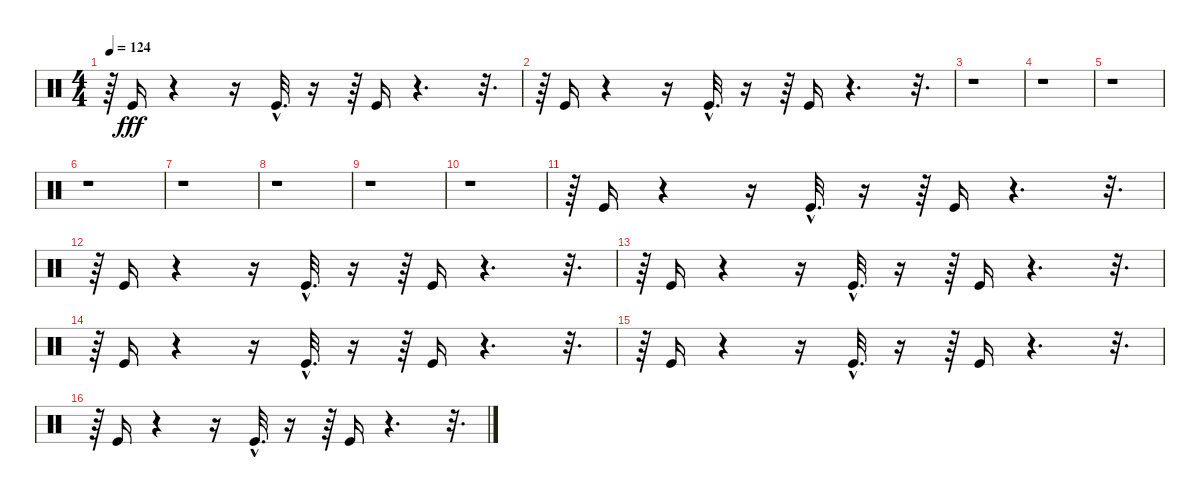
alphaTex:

\track "" {instrument percussion}
\staff {score}
\articulation defaults
\ts (4 4)
\tempo 124
\clef neutral
\ks c
r.64{dy fff} "Kick (hit)".16 r.4 r.16 "Kick (hit)"{hac}.32{d} r.16 r.64 "Kick (hit)".16 r.4{d} r.32{d} |
r.64 "Kick (hit)".16 r.4 r.16 "Kick (hit)"{hac}.32{d} r.16 r.64 "Kick (hit)".16 r.4{d} r.32{d} |
r.1 |
r.1 |
r.1 |
r.1 |
r.1 |
r.1 |
r.1 |
r.1 |
r.64 "Kick (hit)".16 r.4 r.16 "Kick (hit)"{hac}.32{d} r.16 r.64 "Kick (hit)".16 r.4{d} r.32{d} |
r.64 "Kick (hit)".16 r.4 r.16 "Kick (hit)"{hac}.32{d} r.16 r.64 "Kick (hit)".16 r.4{d} r.32{d} |
r.64 "Kick (hit)".16 r.4 r.16 "Kick (hit)"{hac}.32{d} r.16 r.64 "Kick (hit)".16 r.4{d} r.32{d} |
r.64 "Kick (hit)".16 r.4 r.16 "Kick (hit)"{hac}.32{d} r.16 r.64 "Kick (hit)".16 r.4{d} r.32{d} |
r.64 "Kick (hit)".16 r.4 r.16 "Kick (hit)"{hac}.32{d} r.16 r.64 "Kick (hit)".16 r.4{d} r.32{d} |
r.64 "Kick (hit)".16 r.4 r.16 "Kick (hit)"{hac}.32{d} r.16 r.64 "Kick (hit)".16 r.4{d} r.32{d}
